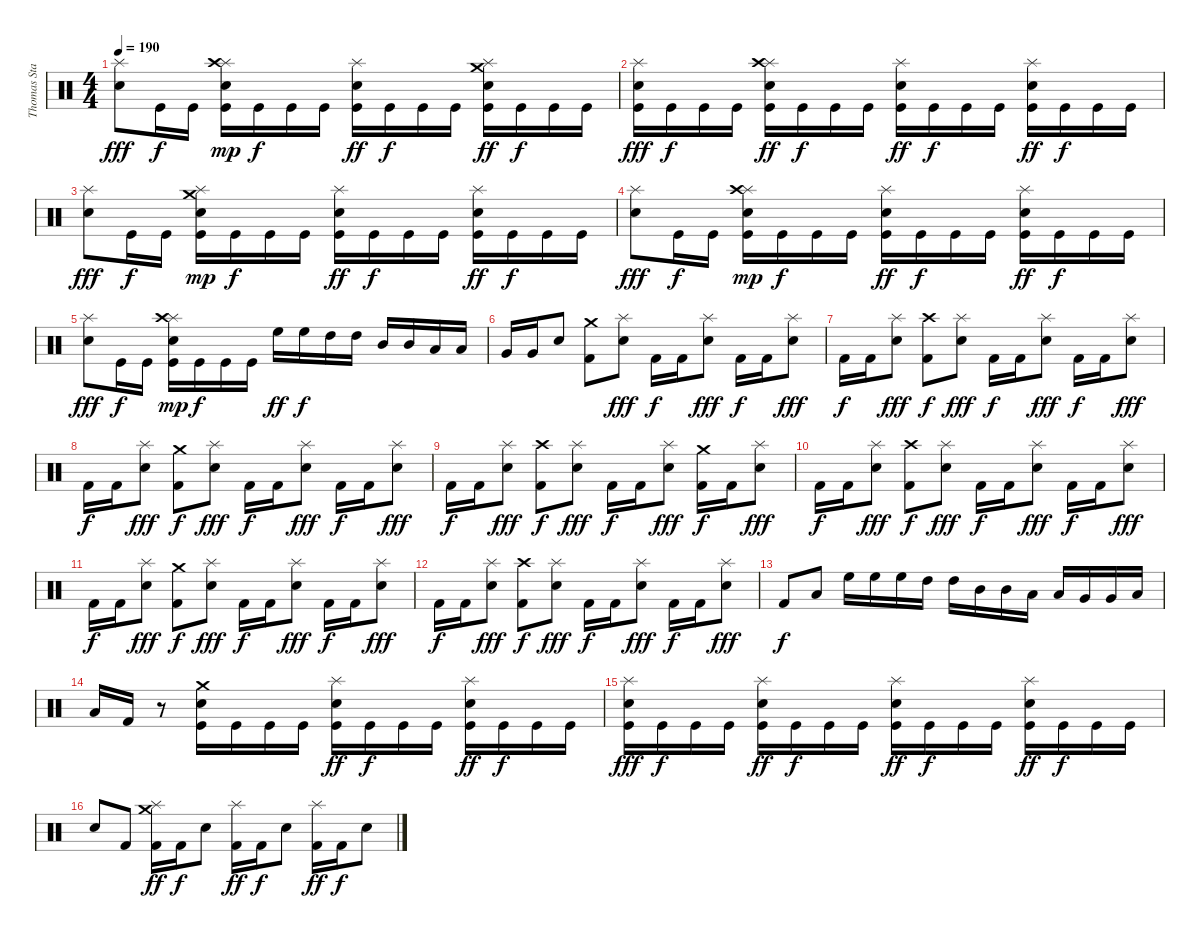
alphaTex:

\track ("Thomas Stauch" "Thomas Sta") {instrument percussion}
\staff {score}
\articulation defaults
\ts (4 4)
\tempo 190
\clef neutral
\ks c
("Splash (hit)" "Electric Snare (hit)").8{dy fff} "Kick (hit)".16{dy f} "Kick (hit)".16 ("Splash (hit)" "Crash high (hit)" "Electric Snare (hit)" "Kick (hit)").16{dy mp} "Kick (hit)".16{dy f} "Kick (hit)".16 "Kick (hit)".16 ("Splash (hit)" "Electric Snare (hit)" "Kick (hit)").16{dy ff} "Kick (hit)".16{dy f} "Kick (hit)".16 "Kick (hit)".16 ("Splash (hit)" "Crash medium (hit)" "Electric Snare (hit)" "Kick (hit)").16{dy ff} "Kick (hit)".16{dy f} "Kick (hit)".16 "Kick (hit)".16 |
("Splash (hit)" "Electric Snare (hit)" "Kick (hit)").16{dy fff} "Kick (hit)".16{dy f} "Kick (hit)".16 "Kick (hit)".16 ("Splash (hit)" "Crash high (hit)" "Electric Snare (hit)" "Kick (hit)").16{dy ff} "Kick (hit)".16{dy f} "Kick (hit)".16 "Kick (hit)".16 ("Splash (hit)" "Electric Snare (hit)" "Kick (hit)").16{dy ff} "Kick (hit)".16{dy f} "Kick (hit)".16 "Kick (hit)".16 ("Splash (hit)" "Electric Snare (hit)" "Kick (hit)").16{dy ff} "Kick (hit)".16{dy f} "Kick (hit)".16 "Kick (hit)".16 |
("Splash (hit)" "Electric Snare (hit)").8{dy fff} "Kick (hit)".16{dy f} "Kick (hit)".16 ("Splash (hit)" "Crash medium (hit)" "Electric Snare (hit)" "Kick (hit)").16{dy mp} "Kick (hit)".16{dy f} "Kick (hit)".16 "Kick (hit)".16 ("Splash (hit)" "Electric Snare (hit)" "Kick (hit)").16{dy ff} "Kick (hit)".16{dy f} "Kick (hit)".16 "Kick (hit)".16 ("Splash (hit)" "Electric Snare (hit)" "Kick (hit)").16{dy ff} "Kick (hit)".16{dy f} "Kick (hit)".16 "Kick (hit)".16 |
("Splash (hit)" "Electric Snare (hit)").8{dy fff} "Kick (hit)".16{dy f} "Kick (hit)".16 ("Splash (hit)" "Crash high (hit)" "Electric Snare (hit)" "Kick (hit)").16{dy mp} "Kick (hit)".16{dy f} "Kick (hit)".16 "Kick (hit)".16 ("Splash (hit)" "Electric Snare (hit)" "Kick (hit)").16{dy ff} "Kick (hit)".16{dy f} "Kick (hit)".16 "Kick (hit)".16 ("Splash (hit)" "Electric Snare (hit)" "Kick (hit)").16{dy ff} "Kick (hit)".16{dy f} "Kick (hit)".16 "Kick (hit)".16 |
("Splash (hit)" "Electric Snare (hit)").8{dy fff} "Kick (hit)".16{dy f} "Kick (hit)".16 ("Splash (hit)" "Crash high (hit)" "Electric Snare (hit)" "Kick (hit)").16{dy mp} "Kick (hit)".16{dy f} "Kick (hit)".16 "Kick (hit)".16 "High Floor Tom (hit)".16{dy ff} "High Floor Tom (hit)".16{dy f} "High Tom (hit)".16 "High Tom (hit)".16 "Mid Tom (hit)".16 "Mid Tom (hit)".16 "Low Tom (hit)".16 "Low Tom (hit)".16 |
"Very Low Tom (hit)".16 "Very Low Tom (hit)".16 "Electric Snare (hit)".8 ("Crash medium (hit)" "Kick (hit) 2").8 ("Splash (hit)" "Electric Snare (hit)").8{dy fff} "Kick (hit) 2".16{dy f} "Kick (hit) 2".16 ("Splash (hit)" "Electric Snare (hit)").8{dy fff} "Kick (hit) 2".16{dy f} "Kick (hit) 2".16 ("Splash (hit)" "Electric Snare (hit)").8{dy fff} |
"Kick (hit) 2".16{dy f} "Kick (hit) 2".16 ("Splash (hit)" "Electric Snare (hit)").8{dy fff} ("Crash high (hit)" "Kick (hit) 2").8{dy f} ("Splash (hit)" "Electric Snare (hit)").8{dy fff} "Kick (hit) 2".16{dy f} "Kick (hit) 2".16 ("Splash (hit)" "Electric Snare (hit)").8{dy fff} "Kick (hit) 2".16{dy f} "Kick (hit) 2".16 ("Splash (hit)" "Electric Snare (hit)").8{dy fff} |
"Kick (hit) 2".16{dy f} "Kick (hit) 2".16 ("Splash (hit)" "Electric Snare (hit)").8{dy fff} ("Crash medium (hit)" "Kick (hit) 2").8{dy f} ("Splash (hit)" "Electric Snare (hit)").8{dy fff} "Kick (hit) 2".16{dy f} "Kick (hit) 2".16 ("Splash (hit)" "Electric Snare (hit)").8{dy fff} "Kick (hit) 2".16{dy f} "Kick (hit) 2".16 ("Splash (hit)" "Electric Snare (hit)").8{dy fff} |
"Kick (hit) 2".16{dy f} "Kick (hit) 2".16 ("Splash (hit)" "Electric Snare (hit)").8{dy fff} ("Crash high (hit)" "Kick (hit) 2").8{dy f} ("Splash (hit)" "Electric Snare (hit)").8{dy fff} "Kick (hit) 2".16{dy f} "Kick (hit) 2".16 ("Splash (hit)" "Electric Snare (hit)").8{dy fff} ("Crash medium (hit)" "Kick (hit) 2").16{dy f} "Kick (hit) 2".16 ("Splash (hit)" "Electric Snare (hit)").8{dy fff} |
"Kick (hit) 2".16{dy f} "Kick (hit) 2".16 ("Splash (hit)" "Electric Snare (hit)").8{dy fff} ("Crash high (hit)" "Kick (hit) 2").8{dy f} ("Splash (hit)" "Electric Snare (hit)").8{dy fff} "Kick (hit) 2".16{dy f} "Kick (hit) 2".16 ("Splash (hit)" "Electric Snare (hit)").8{dy fff} "Kick (hit) 2".16{dy f} "Kick (hit) 2".16 ("Splash (hit)" "Electric Snare (hit)").8{dy fff} |
"Kick (hit) 2".16{dy f} "Kick (hit) 2".16 ("Splash (hit)" "Electric Snare (hit)").8{dy fff} ("Crash medium (hit)" "Kick (hit) 2").8{dy f} ("Splash (hit)" "Electric Snare (hit)").8{dy fff} "Kick (hit) 2".16{dy f} "Kick (hit) 2".16 ("Splash (hit)" "Electric Snare (hit)").8{dy fff} "Kick (hit) 2".16{dy f} "Kick (hit) 2".16 ("Splash (hit)" "Electric Snare (hit)").8{dy fff} |
"Kick (hit) 2".16{dy f} "Kick (hit) 2".16 ("Splash (hit)" "Electric Snare (hit)").8{dy fff} ("Crash high (hit)" "Kick (hit) 2").8{dy f} ("Splash (hit)" "Electric Snare (hit)").8{dy fff} "Kick (hit) 2".16{dy f} "Kick (hit) 2".16 ("Splash (hit)" "Electric Snare (hit)").8{dy fff} "Kick (hit) 2".16{dy f} "Kick (hit) 2".16 ("Splash (hit)" "Electric Snare (hit)").8{dy fff} |
"Kick (hit) 2".8{dy f} "Low Tom (hit)".8 "High Floor Tom (hit)".16 "High Floor Tom (hit)".16 "High Floor Tom (hit)".16 "High Tom (hit)".16 "High Tom (hit)".16 "Mid Tom (hit)".16 "Mid Tom (hit)".16 "Low Tom (hit)".16 "Low Tom (hit)".16 "Very Low Tom (hit)".16 "Very Low Tom (hit)".16 "Low Floor Tom (hit)".16 |
"Low Floor Tom (hit)".16 "Kick (hit) 2".16 r.8 ("Crash medium (hit)" "Electric Snare (hit)" "Kick (hit)").16 "Kick (hit)".16 "Kick (hit)".16 "Kick (hit)".16 ("Splash (hit)" "Electric Snare (hit)" "Kick (hit)").16{dy ff} "Kick (hit)".16{dy f} "Kick (hit)".16 "Kick (hit)".16 ("Splash (hit)" "Electric Snare (hit)" "Kick (hit)").16{dy ff} "Kick (hit)".16{dy f} "Kick (hit)".16 "Kick (hit)".16 |
("Splash (hit)" "Electric Snare (hit)" "Kick (hit)").16{dy fff} "Kick (hit)".16{dy f} "Kick (hit)".16 "Kick (hit)".16 ("Splash (hit)" "Electric Snare (hit)" "Kick (hit)").16{dy ff} "Kick (hit)".16{dy f} "Kick (hit)".16 "Kick (hit)".16 ("Splash (hit)" "Electric Snare (hit)" "Kick (hit)").16{dy ff} "Kick (hit)".16{dy f} "Kick (hit)".16 "Kick (hit)".16 ("Splash (hit)" "Electric Snare (hit)" "Kick (hit)").16{dy ff} "Kick (hit)".16{dy f} "Kick (hit)".16 "Kick (hit)".16 |
"Electric Snare (hit)".8 "Kick (hit) 2".8 ("Splash (hit)" "Crash medium (hit)" "Kick (hit) 2").16{dy ff} "Kick (hit) 2".16{dy f} "Electric Snare (hit)".8 ("Splash (hit)" "Kick (hit) 2").16{dy ff} "Kick (hit) 2".16{dy f} "Electric Snare (hit)".8 ("Splash (hit)" "Kick (hit) 2").16{dy ff} "Kick (hit) 2".16{dy f} "Electric Snare (hit)".8
